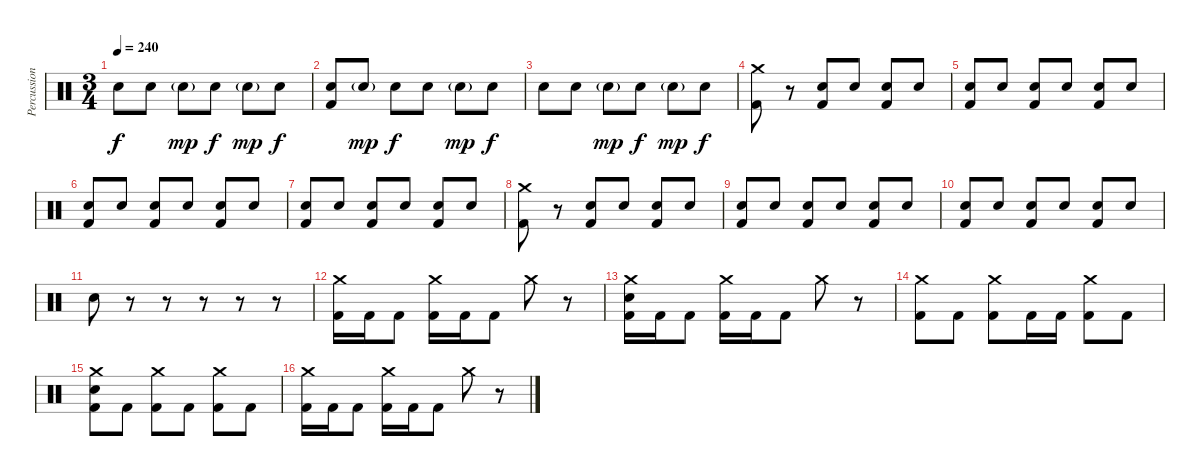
\track ("Percussion" "Percussion") {instrument percussion}
\staff {score}
\articulation defaults
\ts (3 4)
\tempo 240
\clef neutral
\ks c "Electric Snare (hit)".8{dy f} "Electric Snare (hit)".8 "Electric Snare (hit)"{g}.8{dy mp} "Electric Snare (hit)".8{dy f} "Electric Snare (hit)"{g}.8{dy mp} "Electric Snare (hit)".8{dy f}
|
("Electric Snare (hit)" "Kick (hit) 2").8 "Electric Snare (hit)"{g}.8{dy mp} "Electric Snare (hit)".8{dy f} "Electric Snare (hit)".8 "Electric Snare (hit)"{g}.8{dy mp} "Electric Snare (hit)".8{dy f} |
"Electric Snare (hit)".8 "Electric Snare (hit)".8 "Electric Snare (hit)"{g}.8{dy mp} "Electric Snare (hit)".8{dy f} "Electric Snare (hit)"{g}.8{dy mp} "Electric Snare (hit)".8{dy f} |
("Crash medium (hit)" "Kick (hit) 2").8 r.8 ("Electric Snare (hit)" "Kick (hit) 2").8 "Electric Snare (hit)".8 ("Electric Snare (hit)" "Kick (hit) 2").8 "Electric Snare (hit)".8 |
("Electric Snare (hit)" "Kick (hit) 2").8 "Electric Snare (hit)".8 ("Electric Snare (hit)" "Kick (hit) 2").8 "Electric Snare (hit)".8 ("Electric Snare (hit)" "Kick (hit) 2").8 "Electric Snare (hit)".8 |
("Electric Snare (hit)" "Kick (hit) 2").8 "Electric Snare (hit)".8 ("Electric Snare (hit)" "Kick (hit) 2").8 "Electric Snare (hit)".8 ("Electric Snare (hit)" "Kick (hit) 2").8 "Electric Snare (hit)".8 |
("Electric Snare (hit)" "Kick (hit) 2").8 "Electric Snare (hit)".8 ("Electric Snare (hit)" "Kick (hit) 2").8 "Electric Snare (hit)".8 ("Electric Snare (hit)" "Kick (hit) 2").8 "Electric Snare (hit)".8 |
("Crash medium (hit)" "Kick (hit) 2").8 r.8 ("Electric Snare (hit)" "Kick (hit) 2").8 "Electric Snare (hit)".8 ("Electric Snare (hit)" "Kick (hit) 2").8 "Electric Snare (hit)".8 |
("Electric Snare (hit)" "Kick (hit) 2").8 "Electric Snare (hit)".8 ("Electric Snare (hit)" "Kick (hit) 2").8 "Electric Snare (hit)".8 ("Electric Snare (hit)" "Kick (hit) 2").8 "Electric Snare (hit)".8 |
("Electric Snare (hit)" "Kick (hit) 2").8 "Electric Snare (hit)".8 ("Electric Snare (hit)" "Kick (hit) 2").8 "Electric Snare (hit)".8 ("Electric Snare (hit)" "Kick (hit) 2").8 "Electric Snare (hit)".8 |
"Electric Snare (hit)".8 r.8 r.8 r.8 r.8 r.8 |
("Crash medium (hit)" "Kick (hit) 2").16 "Kick (hit) 2".16 "Kick (hit) 2".8 ("Crash medium (hit)" "Kick (hit) 2").16 "Kick (hit) 2".16 "Kick (hit) 2".8 "Crash medium (hit)".8 r.8 |
("Crash medium (hit)" "Electric Snare (hit)" "Kick (hit) 2").16 "Kick (hit) 2".16 "Kick (hit) 2".8 ("Crash medium (hit)" "Kick (hit) 2").16 "Kick (hit) 2".16 "Kick (hit) 2".8 "Crash medium (hit)".8 r.8 |
("Crash medium (hit)" "Kick (hit) 2").8 "Kick (hit) 2".8 ("Crash medium (hit)" "Kick (hit) 2").8 "Kick (hit) 2".16 "Kick (hit) 2".16 ("Crash medium (hit)" "Kick (hit) 2").8 "Kick (hit) 2".8 |
("Crash medium (hit)" "Electric Snare (hit)" "Kick (hit) 2").8 "Kick (hit) 2".8 ("Crash medium (hit)" "Kick (hit) 2").8 "Kick (hit) 2".8 ("Crash medium (hit)" "Kick (hit) 2").8 "Kick (hit) 2".8 |
("Crash medium (hit)" "Kick (hit) 2").16 "Kick (hit) 2".16 "Kick (hit) 2".8 ("Crash medium (hit)" "Kick (hit) 2").16 "Kick (hit) 2".16 "Kick (hit) 2".8 "Crash medium (hit)".8 r.8
